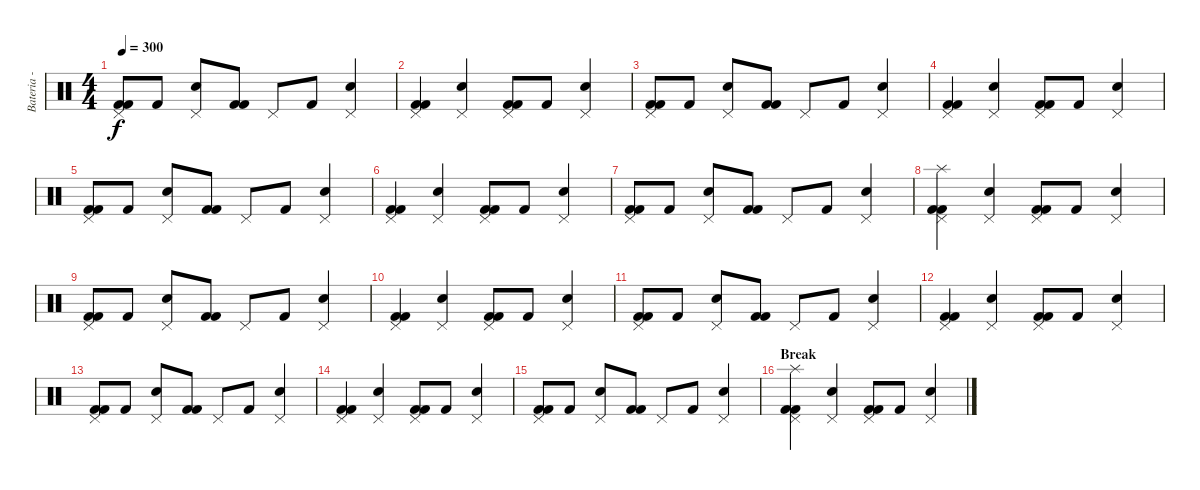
\track ("Bateria - Larzon" "Bateria - ") {instrument percussion}
\staff {score}
\articulation defaults
\ts (4 4)
\tempo 300
\clef neutral
\ks c
("Pedal Hi-Hat (hit)" "Kick (hit) 2" "Kick (hit) 2").8{dy f} "Kick (hit) 2".8 ("Pedal Hi-Hat (hit)" "Snare (hit) 2").8 ("Kick (hit) 2" "Kick (hit) 2").8 "Pedal Hi-Hat (hit)".8 "Kick (hit) 2".8 ("Snare (hit) 2" "Pedal Hi-Hat (hit)").4 |
("Pedal Hi-Hat (hit)" "Kick (hit) 2" "Kick (hit) 2").4 ("Snare (hit) 2" "Pedal Hi-Hat (hit)").4 ("Kick (hit) 2" "Kick (hit) 2" "Pedal Hi-Hat (hit)").8 "Kick (hit) 2".8 ("Pedal Hi-Hat (hit)" "Snare (hit) 2").4 |
("Pedal Hi-Hat (hit)" "Kick (hit) 2" "Kick (hit) 2").8 "Kick (hit) 2".8 ("Pedal Hi-Hat (hit)" "Snare (hit) 2").8 ("Kick (hit) 2" "Kick (hit) 2").8 "Pedal Hi-Hat (hit)".8 "Kick (hit) 2".8 ("Snare (hit) 2" "Pedal Hi-Hat (hit)").4 |
("Pedal Hi-Hat (hit)" "Kick (hit) 2" "Kick (hit) 2").4 ("Snare (hit) 2" "Pedal Hi-Hat (hit)").4 ("Kick (hit) 2" "Kick (hit) 2" "Pedal Hi-Hat (hit)").8 "Kick (hit) 2".8 ("Pedal Hi-Hat (hit)" "Snare (hit) 2").4 |
("Pedal Hi-Hat (hit)" "Kick (hit) 2" "Kick (hit) 2").8 "Kick (hit) 2".8 ("Pedal Hi-Hat (hit)" "Snare (hit) 2").8 ("Kick (hit) 2" "Kick (hit) 2").8 "Pedal Hi-Hat (hit)".8 "Kick (hit) 2".8 ("Snare (hit) 2" "Pedal Hi-Hat (hit)").4 |
("Pedal Hi-Hat (hit)" "Kick (hit) 2" "Kick (hit) 2").4 ("Snare (hit) 2" "Pedal Hi-Hat (hit)").4 ("Kick (hit) 2" "Kick (hit) 2" "Pedal Hi-Hat (hit)").8 "Kick (hit) 2".8 ("Pedal Hi-Hat (hit)" "Snare (hit) 2").4 |
("Pedal Hi-Hat (hit)" "Kick (hit) 2" "Kick (hit) 2").8 "Kick (hit) 2".8 ("Pedal Hi-Hat (hit)" "Snare (hit) 2").8 ("Kick (hit) 2" "Kick (hit) 2").8 "Pedal Hi-Hat (hit)".8 "Kick (hit) 2".8 ("Snare (hit) 2" "Pedal Hi-Hat (hit)").4 |
("Kick (hit) 2" "Kick (hit) 2" "Pedal Hi-Hat (hit)" "Splash (hit)").4 ("Snare (hit) 2" "Pedal Hi-Hat (hit)").4 ("Kick (hit) 2" "Kick (hit) 2" "Pedal Hi-Hat (hit)").8 "Kick (hit) 2".8 ("Pedal Hi-Hat (hit)" "Snare (hit) 2").4 |
("Pedal Hi-Hat (hit)" "Kick (hit) 2" "Kick (hit) 2").8 "Kick (hit) 2".8 ("Pedal Hi-Hat (hit)" "Snare (hit) 2").8 ("Kick (hit) 2" "Kick (hit) 2").8 "Pedal Hi-Hat (hit)".8 "Kick (hit) 2".8 ("Snare (hit) 2" "Pedal Hi-Hat (hit)").4 |
("Pedal Hi-Hat (hit)" "Kick (hit) 2" "Kick (hit) 2").4 ("Snare (hit) 2" "Pedal Hi-Hat (hit)").4 ("Kick (hit) 2" "Kick (hit) 2" "Pedal Hi-Hat (hit)").8 "Kick (hit) 2".8 ("Pedal Hi-Hat (hit)" "Snare (hit) 2").4 |
("Pedal Hi-Hat (hit)" "Kick (hit) 2" "Kick (hit) 2").8 "Kick (hit) 2".8 ("Pedal Hi-Hat (hit)" "Snare (hit) 2").8 ("Kick (hit) 2" "Kick (hit) 2").8 "Pedal Hi-Hat (hit)".8 "Kick (hit) 2".8 ("Snare (hit) 2" "Pedal Hi-Hat (hit)").4 |
("Pedal Hi-Hat (hit)" "Kick (hit) 2" "Kick (hit) 2").4 ("Snare (hit) 2" "Pedal Hi-Hat (hit)").4 ("Kick (hit) 2" "Kick (hit) 2" "Pedal Hi-Hat (hit)").8 "Kick (hit) 2".8 ("Pedal Hi-Hat (hit)" "Snare (hit) 2").4 |
("Pedal Hi-Hat (hit)" "Kick (hit) 2" "Kick (hit) 2").8 "Kick (hit) 2".8 ("Pedal Hi-Hat (hit)" "Snare (hit) 2").8 ("Kick (hit) 2" "Kick (hit) 2").8 "Pedal Hi-Hat (hit)".8 "Kick (hit) 2".8 ("Snare (hit) 2" "Pedal Hi-Hat (hit)").4 |
("Pedal Hi-Hat (hit)" "Kick (hit) 2" "Kick (hit) 2").4 ("Snare (hit) 2" "Pedal Hi-Hat (hit)").4 ("Kick (hit) 2" "Kick (hit) 2" "Pedal Hi-Hat (hit)").8 "Kick (hit) 2".8 ("Pedal Hi-Hat (hit)" "Snare (hit) 2").4 |
("Pedal Hi-Hat (hit)" "Kick (hit) 2" "Kick (hit) 2").8 "Kick (hit) 2".8 ("Pedal Hi-Hat (hit)" "Snare (hit) 2").8 ("Kick (hit) 2" "Kick (hit) 2").8 "Pedal Hi-Hat (hit)".8 "Kick (hit) 2".8 ("Snare (hit) 2" "Pedal Hi-Hat (hit)").4 |
\section ("" "Break")
("Splash (hit)" "Pedal Hi-Hat (hit)" "Kick (hit) 2" "Kick (hit) 2").4 ("Snare (hit) 2" "Pedal Hi-Hat (hit)").4 ("Kick (hit) 2" "Kick (hit) 2" "Pedal Hi-Hat (hit)").8 "Kick (hit) 2".8 ("Pedal Hi-Hat (hit)" "Snare (hit) 2").4
